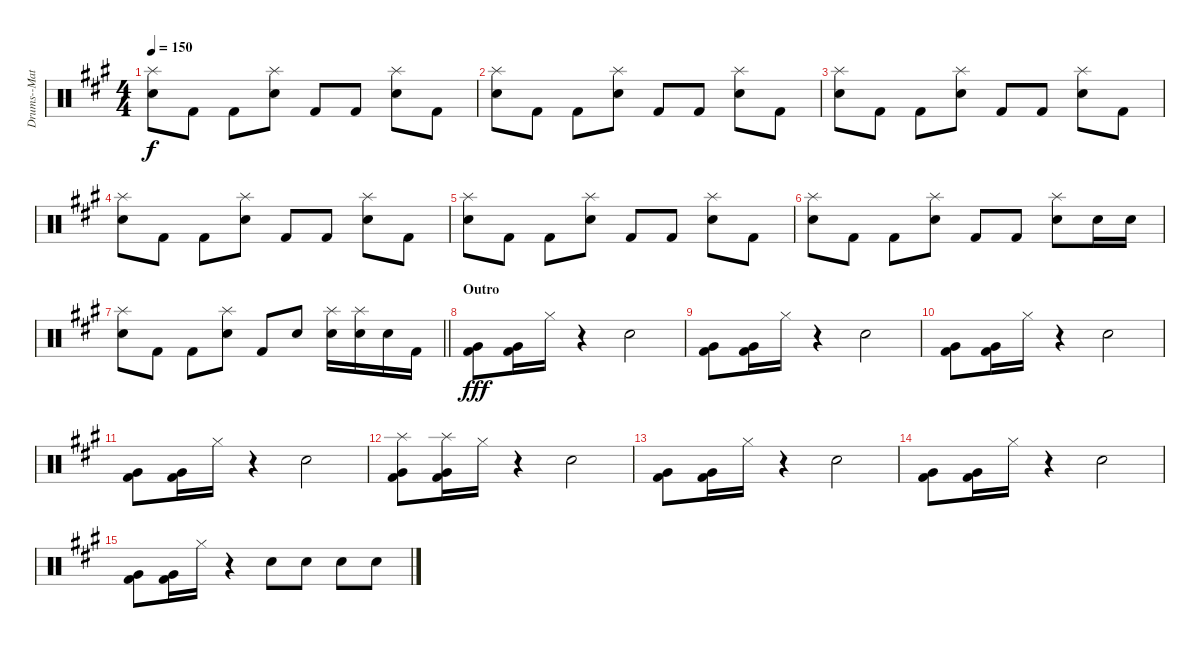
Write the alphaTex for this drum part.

\track ("Drums--Matt Whalen" "Drums--Mat") {instrument percussion}
\staff {score}
\articulation defaults
\ts (4 4)
\tempo 150
\clef neutral
\ks a
("Snare (hit) 2" "Splash (hit)").8{dy f} "Kick (hit) 2".8 "Kick (hit) 2".8 ("Snare (hit) 2" "Splash (hit)").8 "Kick (hit) 2".8 "Kick (hit) 2".8 ("Snare (hit) 2" "Splash (hit)").8 "Kick (hit) 2".8 |
("Snare (hit) 2" "Splash (hit)").8 "Kick (hit) 2".8 "Kick (hit) 2".8 ("Snare (hit) 2" "Splash (hit)").8 "Kick (hit) 2".8 "Kick (hit) 2".8 ("Snare (hit) 2" "Splash (hit)").8 "Kick (hit) 2".8 |
("Snare (hit) 2" "Splash (hit)").8 "Kick (hit) 2".8 "Kick (hit) 2".8 ("Snare (hit) 2" "Splash (hit)").8 "Kick (hit) 2".8 "Kick (hit) 2".8 ("Snare (hit) 2" "Splash (hit)").8 "Kick (hit) 2".8 |
("Snare (hit) 2" "Splash (hit)").8 "Kick (hit) 2".8 "Kick (hit) 2".8 ("Snare (hit) 2" "Splash (hit)").8 "Kick (hit) 2".8 "Kick (hit) 2".8 ("Snare (hit) 2" "Splash (hit)").8 "Kick (hit) 2".8 |
("Snare (hit) 2" "Splash (hit)").8 "Kick (hit) 2".8 "Kick (hit) 2".8 ("Snare (hit) 2" "Splash (hit)").8 "Kick (hit) 2".8 "Kick (hit) 2".8 ("Snare (hit) 2" "Splash (hit)").8 "Kick (hit) 2".8 |
("Snare (hit) 2" "Splash (hit)").8 "Kick (hit) 2".8 "Kick (hit) 2".8 ("Snare (hit) 2" "Splash (hit)").8 "Kick (hit) 2".8 "Kick (hit) 2".8 ("Snare (hit) 2" "Splash (hit)").8 "Snare (hit) 2".16 "Snare (hit) 2".16 |
\barLineRight lightlight
("Snare (hit) 2" "Splash (hit)").8 "Kick (hit) 2".8 "Kick (hit) 2".8 ("Snare (hit) 2" "Splash (hit)").8 "Kick (hit) 2".8 "Snare (hit) 2".8 ("Snare (hit) 2" "Splash (hit)").16 ("Snare (hit) 2" "Splash (hit)").16 "Snare (hit) 2".16 "Kick (hit) 2".16 |
\section ("" "Outro")
("Kick (hit) 2" "Very Low Tom (hit)").8{dy fff} ("Kick (hit) 2" "Very Low Tom (hit)").16 "Hi-Hat (closed)".16 r.4 "Snare (hit) 2".2 |
("Kick (hit) 2" "Very Low Tom (hit)").8 ("Kick (hit) 2" "Very Low Tom (hit)").16 "Hi-Hat (closed)".16 r.4 "Snare (hit) 2".2 |
("Kick (hit) 2" "Very Low Tom (hit)").8 ("Kick (hit) 2" "Very Low Tom (hit)").16 "Hi-Hat (closed)".16 r.4 "Snare (hit) 2".2 |
("Kick (hit) 2" "Very Low Tom (hit)").8 ("Kick (hit) 2" "Very Low Tom (hit)").16 "Hi-Hat (closed)".16 r.4 "Snare (hit) 2".2 |
("Splash (hit)" "Kick (hit) 2" "Very Low Tom (hit)").8 ("Splash (hit)" "Kick (hit) 2" "Very Low Tom (hit)").16 "Hi-Hat (closed)".16 r.4 "Snare (hit) 2".2 |
("Kick (hit) 2" "Very Low Tom (hit)").8 ("Kick (hit) 2" "Very Low Tom (hit)").16 "Hi-Hat (closed)".16 r.4 "Snare (hit) 2".2 |
("Kick (hit) 2" "Very Low Tom (hit)").8 ("Kick (hit) 2" "Very Low Tom (hit)").16 "Hi-Hat (closed)".16 r.4 "Snare (hit) 2".2 |
("Kick (hit) 2" "Very Low Tom (hit)").8 ("Kick (hit) 2" "Very Low Tom (hit)").16 "Hi-Hat (closed)".16 r.4 "Snare (hit) 2".8 "Snare (hit) 2".8 "Snare (hit) 2".8 "Snare (hit) 2".8
